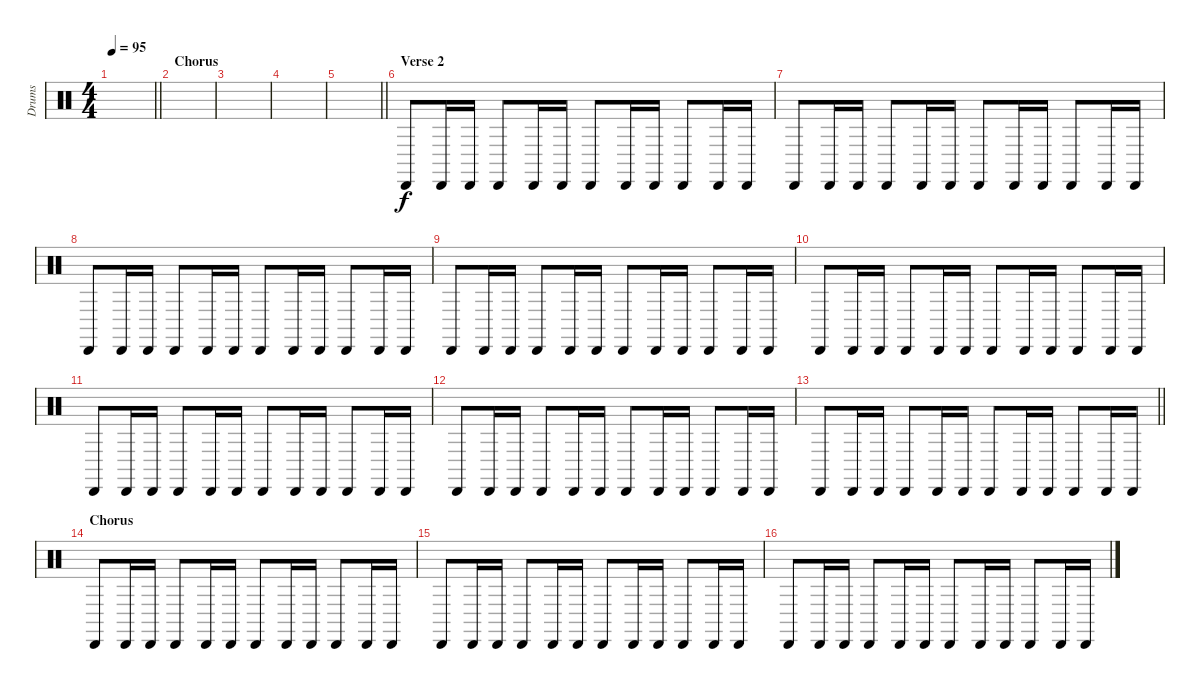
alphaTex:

\track ("Drums" "Drums") {instrument percussion}
\staff {score}
\articulation defaults
\ts (4 4)
\tempo 95
\clef neutral
\barLineRight lightlight
\ks c
|
\section ("" "Chorus")
|
|
|
\barLineRight lightlight
|
\section ("" "Verse 2")
"Cabasa (hit)".8 "Cabasa (hit)".16 "Cabasa (hit)".16 "Cabasa (hit)".8 "Cabasa (hit)".16 "Cabasa (hit)".16 "Cabasa (hit)".8 "Cabasa (hit)".16 "Cabasa (hit)".16 "Cabasa (hit)".8 "Cabasa (hit)".16 "Cabasa (hit)".16 |
"Cabasa (hit)".8 "Cabasa (hit)".16 "Cabasa (hit)".16 "Cabasa (hit)".8 "Cabasa (hit)".16 "Cabasa (hit)".16 "Cabasa (hit)".8 "Cabasa (hit)".16 "Cabasa (hit)".16 "Cabasa (hit)".8 "Cabasa (hit)".16 "Cabasa (hit)".16 |
"Cabasa (hit)".8 "Cabasa (hit)".16 "Cabasa (hit)".16 "Cabasa (hit)".8 "Cabasa (hit)".16 "Cabasa (hit)".16 "Cabasa (hit)".8 "Cabasa (hit)".16 "Cabasa (hit)".16 "Cabasa (hit)".8 "Cabasa (hit)".16 "Cabasa (hit)".16 |
"Cabasa (hit)".8 "Cabasa (hit)".16 "Cabasa (hit)".16 "Cabasa (hit)".8 "Cabasa (hit)".16 "Cabasa (hit)".16 "Cabasa (hit)".8 "Cabasa (hit)".16 "Cabasa (hit)".16 "Cabasa (hit)".8 "Cabasa (hit)".16 "Cabasa (hit)".16 |
"Cabasa (hit)".8 "Cabasa (hit)".16 "Cabasa (hit)".16 "Cabasa (hit)".8 "Cabasa (hit)".16 "Cabasa (hit)".16 "Cabasa (hit)".8 "Cabasa (hit)".16 "Cabasa (hit)".16 "Cabasa (hit)".8 "Cabasa (hit)".16 "Cabasa (hit)".16 |
"Cabasa (hit)".8 "Cabasa (hit)".16 "Cabasa (hit)".16 "Cabasa (hit)".8 "Cabasa (hit)".16 "Cabasa (hit)".16 "Cabasa (hit)".8 "Cabasa (hit)".16 "Cabasa (hit)".16 "Cabasa (hit)".8 "Cabasa (hit)".16 "Cabasa (hit)".16 |
"Cabasa (hit)".8 "Cabasa (hit)".16 "Cabasa (hit)".16 "Cabasa (hit)".8 "Cabasa (hit)".16 "Cabasa (hit)".16 "Cabasa (hit)".8 "Cabasa (hit)".16 "Cabasa (hit)".16 "Cabasa (hit)".8 "Cabasa (hit)".16 "Cabasa (hit)".16 |
\barLineRight lightlight "Cabasa (hit)".8 "Cabasa (hit)".16 "Cabasa (hit)".16 "Cabasa (hit)".8 "Cabasa (hit)".16 "Cabasa (hit)".16 "Cabasa (hit)".8 "Cabasa (hit)".16 "Cabasa (hit)".16 "Cabasa (hit)".8 "Cabasa (hit)".16 "Cabasa (hit)".16
|
\section ("" "Chorus")
"Cabasa (hit)".8 "Cabasa (hit)".16 "Cabasa (hit)".16 "Cabasa (hit)".8 "Cabasa (hit)".16 "Cabasa (hit)".16 "Cabasa (hit)".8 "Cabasa (hit)".16 "Cabasa (hit)".16 "Cabasa (hit)".8 "Cabasa (hit)".16 "Cabasa (hit)".16 |
"Cabasa (hit)".8 "Cabasa (hit)".16 "Cabasa (hit)".16 "Cabasa (hit)".8 "Cabasa (hit)".16 "Cabasa (hit)".16 "Cabasa (hit)".8 "Cabasa (hit)".16 "Cabasa (hit)".16 "Cabasa (hit)".8 "Cabasa (hit)".16 "Cabasa (hit)".16 |
"Cabasa (hit)".8 "Cabasa (hit)".16 "Cabasa (hit)".16 "Cabasa (hit)".8 "Cabasa (hit)".16 "Cabasa (hit)".16 "Cabasa (hit)".8 "Cabasa (hit)".16 "Cabasa (hit)".16 "Cabasa (hit)".8 "Cabasa (hit)".16 "Cabasa (hit)".16
